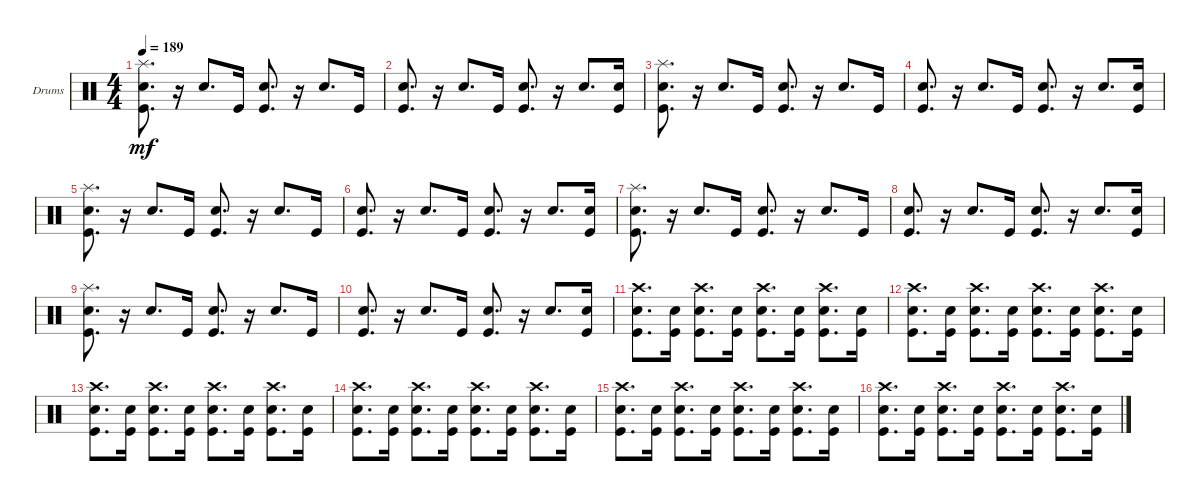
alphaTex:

\defaultSystemsLayout 4
\bracketExtendMode groupsimilarinstruments
\firstSystemTrackNameOrientation horizontal
\otherSystemsTrackNameOrientation horizontal
\track ("Drumkit" "Drums") {instrument percussion}
\staff {score}
\articulation defaults
\ts (4 4)
\tempo 189
\clef neutral
\scale
0.333333
\ks c
("Kick (hit)" "Snare (hit) 2" "Splash (hit)").8{d dy mf} r.16 "Snare (hit) 2".8{d} "Kick (hit)".16 ("Kick (hit)" "Snare (hit) 2").8{d} r.16 "Snare (hit) 2".8{d} "Kick (hit)".16 |
\scale
0.333333 ("Kick (hit)" "Snare (hit) 2").8{d} r.16 "Snare (hit) 2".8{d} "Kick (hit)".16 ("Kick (hit)" "Snare (hit) 2").8{d} r.16 "Snare (hit) 2".8{d} ("Kick (hit)" "Snare (hit) 2").16 |
\scale
0.333333 ("Kick (hit)" "Snare (hit) 2" "Splash (hit)").8{d} r.16 "Snare (hit) 2".8{d} "Kick (hit)".16 ("Kick (hit)" "Snare (hit) 2").8{d} r.16 "Snare (hit) 2".8{d} "Kick (hit)".16 |
\scale
0.333333 ("Kick (hit)" "Snare (hit) 2").8{d} r.16 "Snare (hit) 2".8{d} "Kick (hit)".16 ("Kick (hit)" "Snare (hit) 2").8{d} r.16 "Snare (hit) 2".8{d} ("Kick (hit)" "Snare (hit) 2").16 |
\scale
0.333333 ("Kick (hit)" "Snare (hit) 2" "Splash (hit)").8{d} r.16 "Snare (hit) 2".8{d} "Kick (hit)".16 ("Kick (hit)" "Snare (hit) 2").8{d} r.16 "Snare (hit) 2".8{d} "Kick (hit)".16 |
\scale
0.333333 ("Kick (hit)" "Snare (hit) 2").8{d} r.16 "Snare (hit) 2".8{d} "Kick (hit)".16 ("Kick (hit)" "Snare (hit) 2").8{d} r.16 "Snare (hit) 2".8{d} ("Kick (hit)" "Snare (hit) 2").16 |
\scale
0.333333 ("Kick (hit)" "Snare (hit) 2" "Splash (hit)").8{d} r.16 "Snare (hit) 2".8{d} "Kick (hit)".16 ("Kick (hit)" "Snare (hit) 2").8{d} r.16 "Snare (hit) 2".8{d} "Kick (hit)".16 |
\scale
0.333333 ("Kick (hit)" "Snare (hit) 2").8{d} r.16 "Snare (hit) 2".8{d} "Kick (hit)".16 ("Kick (hit)" "Snare (hit) 2").8{d} r.16 "Snare (hit) 2".8{d} ("Kick (hit)" "Snare (hit) 2").16 |
\scale
0.333333 ("Kick (hit)" "Snare (hit) 2" "Splash (hit)").8{d} r.16 "Snare (hit) 2".8{d} "Kick (hit)".16 ("Kick (hit)" "Snare (hit) 2").8{d} r.16 "Snare (hit) 2".8{d} "Kick (hit)".16 |
\scale
0.333333 ("Kick (hit)" "Snare (hit) 2").8{d} r.16 "Snare (hit) 2".8{d} "Kick (hit)".16 ("Kick (hit)" "Snare (hit) 2").8{d} r.16 "Snare (hit) 2".8{d} ("Kick (hit)" "Snare (hit) 2").16 |
\scale
0.333333 ("Kick (hit)" "Crash high (hit)" "Snare (hit) 2").8{d} ("Snare (hit) 2" "Kick (hit)").16 ("Kick (hit)" "Crash high (hit)" "Snare (hit) 2").8{d} ("Snare (hit) 2" "Kick (hit)").16 ("Kick (hit)" "Crash high (hit)" "Snare (hit) 2").8{d} ("Snare (hit) 2" "Kick (hit)").16 ("Kick (hit)" "Crash high (hit)" "Snare (hit) 2").8{d} ("Snare (hit) 2" "Kick (hit)").16 |
\scale
0.333333 ("Kick (hit)" "Crash high (hit)" "Snare (hit) 2").8{d} ("Snare (hit) 2" "Kick (hit)").16 ("Kick (hit)" "Crash high (hit)" "Snare (hit) 2").8{d} ("Snare (hit) 2" "Kick (hit)").16 ("Kick (hit)" "Crash high (hit)" "Snare (hit) 2").8{d} ("Snare (hit) 2" "Kick (hit)").16 ("Kick (hit)" "Crash high (hit)" "Snare (hit) 2").8{d} ("Snare (hit) 2" "Kick (hit)").16 |
\scale
0.333333 ("Kick (hit)" "Crash high (hit)" "Snare (hit) 2").8{d} ("Snare (hit) 2" "Kick (hit)").16 ("Kick (hit)" "Crash high (hit)" "Snare (hit) 2").8{d} ("Snare (hit) 2" "Kick (hit)").16 ("Kick (hit)" "Crash high (hit)" "Snare (hit) 2").8{d} ("Snare (hit) 2" "Kick (hit)").16 ("Kick (hit)" "Crash high (hit)" "Snare (hit) 2").8{d} ("Snare (hit) 2" "Kick (hit)").16 |
\scale
0.333333 ("Kick (hit)" "Crash high (hit)" "Snare (hit) 2").8{d} ("Snare (hit) 2" "Kick (hit)").16 ("Kick (hit)" "Crash high (hit)" "Snare (hit) 2").8{d} ("Snare (hit) 2" "Kick (hit)").16 ("Kick (hit)" "Crash high (hit)" "Snare (hit) 2").8{d} ("Snare (hit) 2" "Kick (hit)").16 ("Kick (hit)" "Crash high (hit)" "Snare (hit) 2").8{d} ("Snare (hit) 2" "Kick (hit)").16 |
\scale
0.333333 ("Kick (hit)" "Crash high (hit)" "Snare (hit) 2").8{d} ("Snare (hit) 2" "Kick (hit)").16 ("Kick (hit)" "Crash high (hit)" "Snare (hit) 2").8{d} ("Snare (hit) 2" "Kick (hit)").16 ("Kick (hit)" "Crash high (hit)" "Snare (hit) 2").8{d} ("Snare (hit) 2" "Kick (hit)").16 ("Kick (hit)" "Crash high (hit)" "Snare (hit) 2").8{d} ("Snare (hit) 2" "Kick (hit)").16 |
\scale
0.333333 ("Kick (hit)" "Crash high (hit)" "Snare (hit) 2").8{d} ("Snare (hit) 2" "Kick (hit)").16 ("Kick (hit)" "Crash high (hit)" "Snare (hit) 2").8{d} ("Snare (hit) 2" "Kick (hit)").16 ("Kick (hit)" "Crash high (hit)" "Snare (hit) 2").8{d} ("Snare (hit) 2" "Kick (hit)").16 ("Kick (hit)" "Crash high (hit)" "Snare (hit) 2").8{d} ("Snare (hit) 2" "Kick (hit)").16
